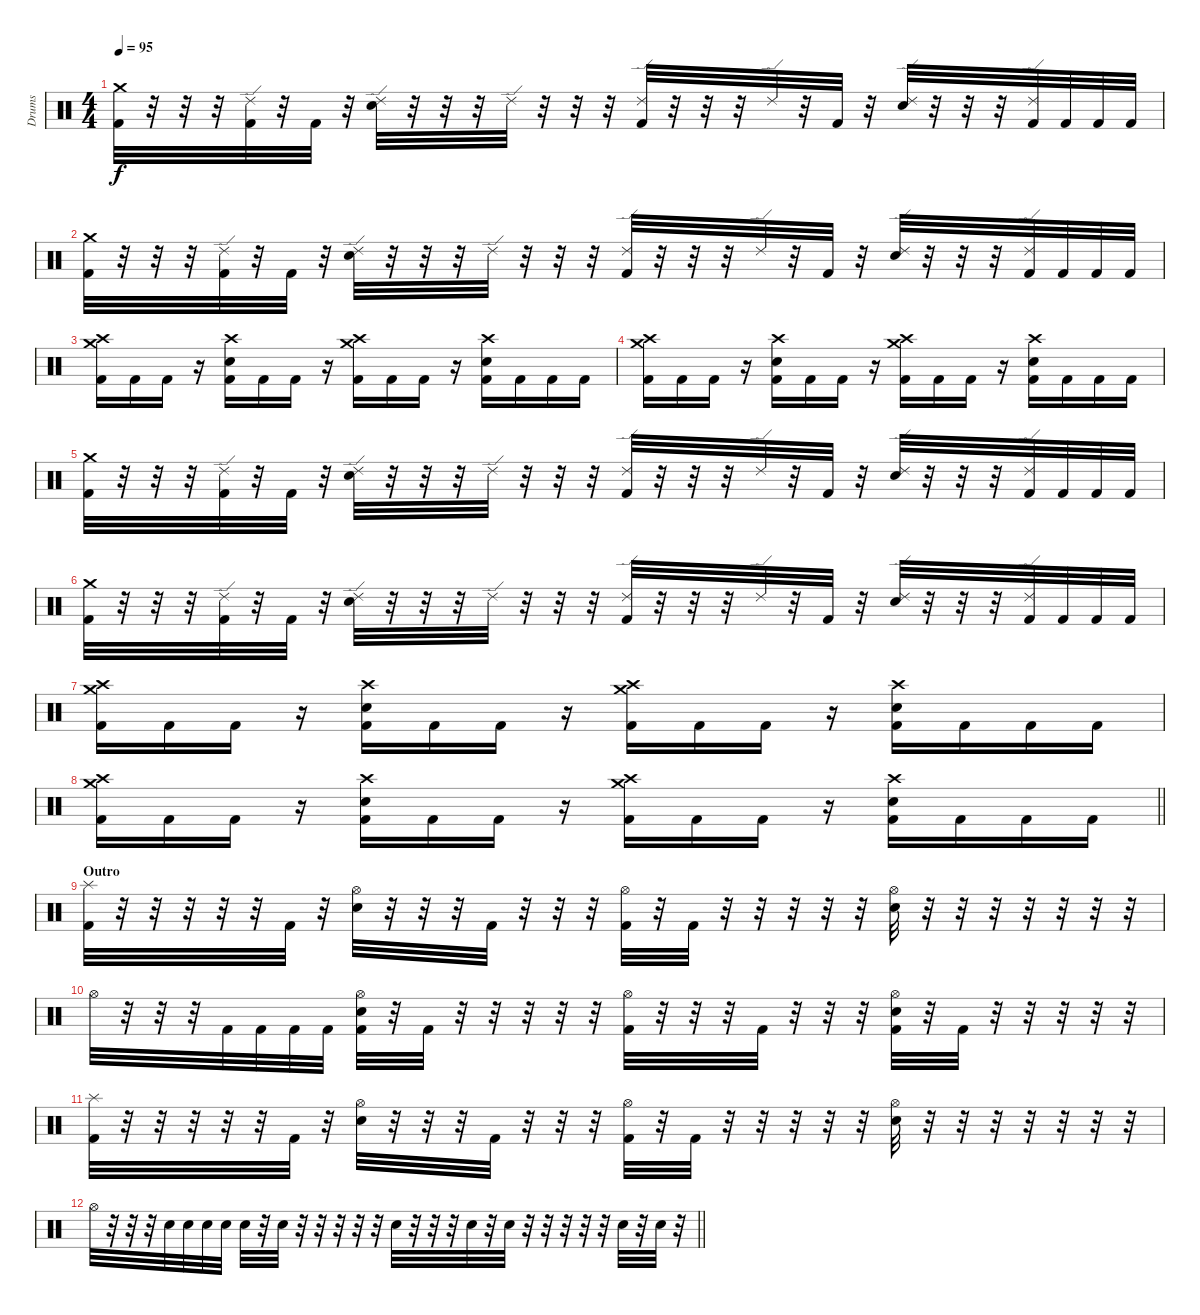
\track ("Drums" "Drums") {instrument percussion}
\staff {score}
\articulation defaults
\ts (4 4)
\tempo 95
\clef neutral
\ks c
("Crash medium (hit)" "Kick (hit) 2").32{dy f} r.32 r.32 r.32 ("Ride (edge) 2" "Kick (hit) 2").32 r.32 "Kick (hit) 2".32 r.32 ("Ride (edge) 2" "Electric Snare (hit)").32 r.32 r.32 r.32 "Ride (edge) 2".32 r.32 r.32 r.32 ("Ride (edge) 2" "Kick (hit) 2").32 r.32 r.32 r.32 "Ride (edge) 2".32 r.32 "Kick (hit) 2".32 r.32 ("Ride (edge) 2" "Electric Snare (hit)").32 r.32 r.32 r.32 ("Ride (edge) 2" "Kick (hit) 2").32 "Kick (hit) 2".32 "Kick (hit) 2".32 "Kick (hit) 2".32 |
("Crash medium (hit)" "Kick (hit) 2").32 r.32 r.32 r.32 ("Ride (edge) 2" "Kick (hit) 2").32 r.32 "Kick (hit) 2".32 r.32 ("Ride (edge) 2" "Electric Snare (hit)").32 r.32 r.32 r.32 "Ride (edge) 2".32 r.32 r.32 r.32 ("Ride (edge) 2" "Kick (hit) 2").32 r.32 r.32 r.32 "Ride (edge) 2".32 r.32 "Kick (hit) 2".32 r.32 ("Ride (edge) 2" "Electric Snare (hit)").32 r.32 r.32 r.32 ("Ride (edge) 2" "Kick (hit) 2").32 "Kick (hit) 2".32 "Kick (hit) 2".32 "Kick (hit) 2".32 |
("Crash medium (hit)" "Crash high (hit)" "Kick (hit) 2").16 "Kick (hit) 2".16 "Kick (hit) 2".16 r.16 ("Crash high (hit)" "Electric Snare (hit)" "Kick (hit) 2").16 "Kick (hit) 2".16 "Kick (hit) 2".16 r.16 ("Crash medium (hit)" "Crash high (hit)" "Kick (hit) 2").16 "Kick (hit) 2".16 "Kick (hit) 2".16 r.16 ("Crash high (hit)" "Electric Snare (hit)" "Kick (hit) 2").16 "Kick (hit) 2".16 "Kick (hit) 2".16 "Kick (hit) 2".16 |
("Crash medium (hit)" "Crash high (hit)" "Kick (hit) 2").16 "Kick (hit) 2".16 "Kick (hit) 2".16 r.16 ("Crash high (hit)" "Electric Snare (hit)" "Kick (hit) 2").16 "Kick (hit) 2".16 "Kick (hit) 2".16 r.16 ("Crash medium (hit)" "Crash high (hit)" "Kick (hit) 2").16 "Kick (hit) 2".16 "Kick (hit) 2".16 r.16 ("Crash high (hit)" "Electric Snare (hit)" "Kick (hit) 2").16 "Kick (hit) 2".16 "Kick (hit) 2".16 "Kick (hit) 2".16 |
("Crash medium (hit)" "Kick (hit) 2").32 r.32 r.32 r.32 ("Ride (edge) 2" "Kick (hit) 2").32 r.32 "Kick (hit) 2".32 r.32 ("Ride (edge) 2" "Electric Snare (hit)").32 r.32 r.32 r.32 "Ride (edge) 2".32 r.32 r.32 r.32 ("Ride (edge) 2" "Kick (hit) 2").32 r.32 r.32 r.32 "Ride (edge) 2".32 r.32 "Kick (hit) 2".32 r.32 ("Ride (edge) 2" "Electric Snare (hit)").32 r.32 r.32 r.32 ("Ride (edge) 2" "Kick (hit) 2").32 "Kick (hit) 2".32 "Kick (hit) 2".32 "Kick (hit) 2".32 |
("Crash medium (hit)" "Kick (hit) 2").32 r.32 r.32 r.32 ("Ride (edge) 2" "Kick (hit) 2").32 r.32 "Kick (hit) 2".32 r.32 ("Ride (edge) 2" "Electric Snare (hit)").32 r.32 r.32 r.32 "Ride (edge) 2".32 r.32 r.32 r.32 ("Ride (edge) 2" "Kick (hit) 2").32 r.32 r.32 r.32 "Ride (edge) 2".32 r.32 "Kick (hit) 2".32 r.32 ("Ride (edge) 2" "Electric Snare (hit)").32 r.32 r.32 r.32 ("Ride (edge) 2" "Kick (hit) 2").32 "Kick (hit) 2".32 "Kick (hit) 2".32 "Kick (hit) 2".32 |
("Crash medium (hit)" "Crash high (hit)" "Kick (hit) 2").16 "Kick (hit) 2".16 "Kick (hit) 2".16 r.16 ("Crash high (hit)" "Electric Snare (hit)" "Kick (hit) 2").16 "Kick (hit) 2".16 "Kick (hit) 2".16 r.16 ("Crash medium (hit)" "Crash high (hit)" "Kick (hit) 2").16 "Kick (hit) 2".16 "Kick (hit) 2".16 r.16 ("Crash high (hit)" "Electric Snare (hit)" "Kick (hit) 2").16 "Kick (hit) 2".16 "Kick (hit) 2".16 "Kick (hit) 2".16 |
\barLineRight lightlight
("Crash medium (hit)" "Crash high (hit)" "Kick (hit) 2").16 "Kick (hit) 2".16 "Kick (hit) 2".16 r.16 ("Crash high (hit)" "Electric Snare (hit)" "Kick (hit) 2").16 "Kick (hit) 2".16 "Kick (hit) 2".16 r.16 ("Crash medium (hit)" "Crash high (hit)" "Kick (hit) 2").16 "Kick (hit) 2".16 "Kick (hit) 2".16 r.16 ("Crash high (hit)" "Electric Snare (hit)" "Kick (hit) 2").16 "Kick (hit) 2".16 "Kick (hit) 2".16 "Kick (hit) 2".16 |
\section ("" "Outro")
("Splash (hit)" "Kick (hit) 2").32 r.32 r.32 r.32 r.32 r.32 "Kick (hit) 2".32 r.32 ("Hi-Hat (open)" "Electric Snare (hit)").32 r.32 r.32 r.32 "Kick (hit) 2".32 r.32 r.32 r.32 ("Hi-Hat (open)" "Kick (hit) 2").32 r.32 "Kick (hit) 2".32 r.32 r.32 r.32 r.32 r.32 ("Hi-Hat (open)" "Electric Snare (hit)").32 r.32 r.32 r.32 r.32 r.32 r.32 r.32 |
"Hi-Hat (open)".32 r.32 r.32 r.32 "Kick (hit) 2".32 "Kick (hit) 2".32 "Kick (hit) 2".32 "Kick (hit) 2".32 ("Hi-Hat (open)" "Electric Snare (hit)" "Kick (hit) 2").32 r.32 "Kick (hit) 2".32 r.32 r.32 r.32 r.32 r.32 ("Hi-Hat (open)" "Kick (hit) 2").32 r.32 r.32 r.32 "Kick (hit) 2".32 r.32 r.32 r.32 ("Hi-Hat (open)" "Electric Snare (hit)" "Kick (hit) 2").32 r.32 "Kick (hit) 2".32 r.32 r.32 r.32 r.32 r.32 |
("Splash (hit)" "Kick (hit) 2").32 r.32 r.32 r.32 r.32 r.32 "Kick (hit) 2".32 r.32 ("Hi-Hat (open)" "Electric Snare (hit)").32 r.32 r.32 r.32 "Kick (hit) 2".32 r.32 r.32 r.32 ("Hi-Hat (open)" "Kick (hit) 2").32 r.32 "Kick (hit) 2".32 r.32 r.32 r.32 r.32 r.32 ("Hi-Hat (open)" "Electric Snare (hit)").32 r.32 r.32 r.32 r.32 r.32 r.32 r.32 |
\barLineRight lightlight "Hi-Hat (open)".32
r.32 r.32 r.32 "Electric Snare (hit)".32 "Electric Snare (hit)".32 "Electric Snare (hit)".32 "Electric Snare (hit)".32 "Electric Snare (hit)".32 r.32 "Electric Snare (hit)".32 r.32 r.32 r.32 r.32 r.32 "Electric Snare (hit)".32 r.32 r.32 r.32 "Electric Snare (hit)".32 r.32 "Electric Snare (hit)".32 r.32 r.32 r.32 r.32 r.32 "Electric Snare (hit)".32 r.32 "Electric Snare (hit)".32 r.32
